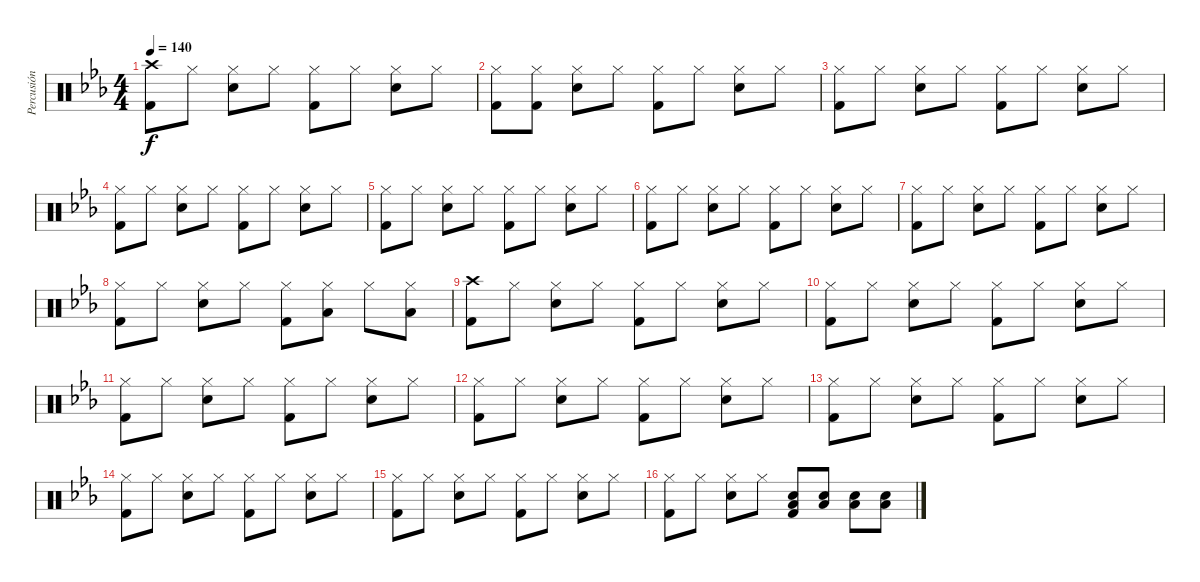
\track ("Percusión" "Percusión") {instrument percussion}
\staff {score}
\articulation defaults
\ts (4 4)
\tempo 140
\clef neutral
\ks eb
("Crash high (hit)" "Kick (hit) 2").8{dy f} "Hi-Hat (closed)".8 ("Hi-Hat (closed)" "Snare (hit) 2").8 "Hi-Hat (closed)".8 ("Hi-Hat (closed)" "Kick (hit) 2").8 "Hi-Hat (closed)".8 ("Hi-Hat (closed)" "Snare (hit) 2").8 "Hi-Hat (closed)".8 |
("Hi-Hat (closed)" "Kick (hit) 2").8 ("Hi-Hat (closed)" "Kick (hit) 2").8 ("Hi-Hat (closed)" "Snare (hit) 2").8 "Hi-Hat (closed)".8 ("Hi-Hat (closed)" "Kick (hit) 2").8 "Hi-Hat (closed)".8 ("Hi-Hat (closed)" "Snare (hit) 2").8 "Hi-Hat (closed)".8 |
("Hi-Hat (closed)" "Kick (hit) 2").8 "Hi-Hat (closed)".8 ("Hi-Hat (closed)" "Snare (hit) 2").8 "Hi-Hat (closed)".8 ("Hi-Hat (closed)" "Kick (hit) 2").8 "Hi-Hat (closed)".8 ("Hi-Hat (closed)" "Snare (hit) 2").8 "Hi-Hat (closed)".8 |
("Hi-Hat (closed)" "Kick (hit) 2").8 "Hi-Hat (closed)".8 ("Hi-Hat (closed)" "Snare (hit) 2").8 "Hi-Hat (closed)".8 ("Hi-Hat (closed)" "Kick (hit) 2").8 "Hi-Hat (closed)".8 ("Hi-Hat (closed)" "Snare (hit) 2").8 "Hi-Hat (closed)".8 |
("Hi-Hat (closed)" "Kick (hit) 2").8 "Hi-Hat (closed)".8 ("Hi-Hat (closed)" "Snare (hit) 2").8 "Hi-Hat (closed)".8 ("Hi-Hat (closed)" "Kick (hit) 2").8 "Hi-Hat (closed)".8 ("Hi-Hat (closed)" "Snare (hit) 2").8 "Hi-Hat (closed)".8 |
("Hi-Hat (closed)" "Kick (hit) 2").8 "Hi-Hat (closed)".8 ("Hi-Hat (closed)" "Snare (hit) 2").8 "Hi-Hat (closed)".8 ("Hi-Hat (closed)" "Kick (hit) 2").8 "Hi-Hat (closed)".8 ("Hi-Hat (closed)" "Snare (hit) 2").8 "Hi-Hat (closed)".8 |
("Hi-Hat (closed)" "Kick (hit) 2").8 "Hi-Hat (closed)".8 ("Hi-Hat (closed)" "Snare (hit) 2").8 "Hi-Hat (closed)".8 ("Hi-Hat (closed)" "Kick (hit) 2").8 "Hi-Hat (closed)".8 ("Hi-Hat (closed)" "Snare (hit) 2").8 "Hi-Hat (closed)".8 |
("Hi-Hat (closed)" "Kick (hit) 2").8 "Hi-Hat (closed)".8 ("Hi-Hat (closed)" "Snare (hit) 2").8 "Hi-Hat (closed)".8 ("Hi-Hat (closed)" "Kick (hit) 2").8 ("Hi-Hat (closed)" "Low Tom (hit)").8 "Hi-Hat (closed)".8 ("Hi-Hat (closed)" "Low Tom (hit)").8 |
("Crash high (hit)" "Kick (hit) 2").8 "Hi-Hat (closed)".8 ("Hi-Hat (closed)" "Snare (hit) 2").8 "Hi-Hat (closed)".8 ("Hi-Hat (closed)" "Kick (hit) 2").8 "Hi-Hat (closed)".8 ("Hi-Hat (closed)" "Snare (hit) 2").8 "Hi-Hat (closed)".8 |
("Hi-Hat (closed)" "Kick (hit) 2").8 "Hi-Hat (closed)".8 ("Hi-Hat (closed)" "Snare (hit) 2").8 "Hi-Hat (closed)".8 ("Hi-Hat (closed)" "Kick (hit) 2").8 "Hi-Hat (closed)".8 ("Hi-Hat (closed)" "Snare (hit) 2").8 "Hi-Hat (closed)".8 |
("Hi-Hat (closed)" "Kick (hit) 2").8 "Hi-Hat (closed)".8 ("Hi-Hat (closed)" "Snare (hit) 2").8 "Hi-Hat (closed)".8 ("Hi-Hat (closed)" "Kick (hit) 2").8 "Hi-Hat (closed)".8 ("Hi-Hat (closed)" "Snare (hit) 2").8 "Hi-Hat (closed)".8 |
("Hi-Hat (closed)" "Kick (hit) 2").8 "Hi-Hat (closed)".8 ("Hi-Hat (closed)" "Snare (hit) 2").8 "Hi-Hat (closed)".8 ("Hi-Hat (closed)" "Kick (hit) 2").8 "Hi-Hat (closed)".8 ("Hi-Hat (closed)" "Snare (hit) 2").8 "Hi-Hat (closed)".8 |
("Hi-Hat (closed)" "Kick (hit) 2").8 "Hi-Hat (closed)".8 ("Hi-Hat (closed)" "Snare (hit) 2").8 "Hi-Hat (closed)".8 ("Hi-Hat (closed)" "Kick (hit) 2").8 "Hi-Hat (closed)".8 ("Hi-Hat (closed)" "Snare (hit) 2").8 "Hi-Hat (closed)".8 |
("Hi-Hat (closed)" "Kick (hit) 2").8 "Hi-Hat (closed)".8 ("Hi-Hat (closed)" "Snare (hit) 2").8 "Hi-Hat (closed)".8 ("Hi-Hat (closed)" "Kick (hit) 2").8 "Hi-Hat (closed)".8 ("Hi-Hat (closed)" "Snare (hit) 2").8 "Hi-Hat (closed)".8 |
("Hi-Hat (closed)" "Kick (hit) 2").8 "Hi-Hat (closed)".8 ("Hi-Hat (closed)" "Snare (hit) 2").8 "Hi-Hat (closed)".8 ("Hi-Hat (closed)" "Kick (hit) 2").8 "Hi-Hat (closed)".8 ("Hi-Hat (closed)" "Snare (hit) 2").8 "Hi-Hat (closed)".8 |
("Hi-Hat (closed)" "Kick (hit) 2").8 "Hi-Hat (closed)".8 ("Hi-Hat (closed)" "Snare (hit) 2").8 "Hi-Hat (closed)".8 ("Low Floor Tom (hit)" "Snare (hit) 2" "Kick (hit) 2").8 ("Low Floor Tom (hit)" "Snare (hit) 2").8 ("Low Floor Tom (hit)" "Snare (hit) 2").8 ("Low Floor Tom (hit)" "Snare (hit) 2").8
